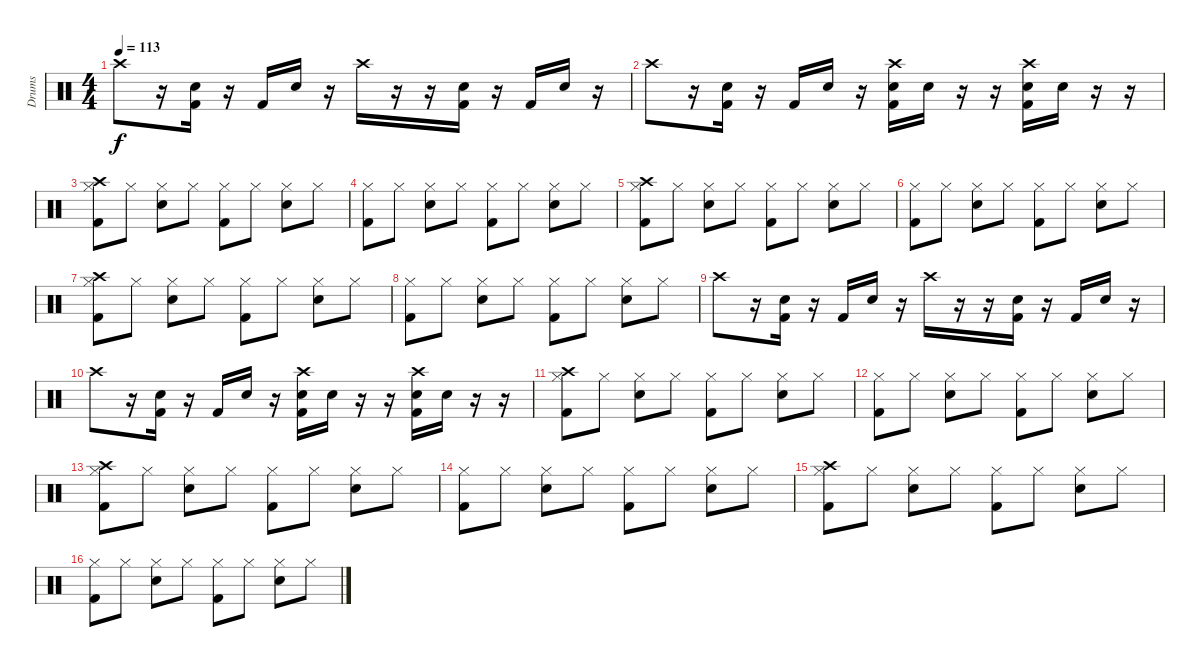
\track ("Drums" "Drums") {instrument percussion}
\staff {score}
\articulation defaults
\ts (4 4)
\tempo 113
\clef neutral
\ks c "Crash high (hit)".8{dy f}
r.16 ("Snare (hit) 2" "Kick (hit) 2").16 r.16 "Kick (hit) 2".16 "Snare (hit) 2".16 r.16 "Crash high (hit)".16 r.16 r.16 ("Snare (hit) 2" "Kick (hit) 2").16 r.16 "Kick (hit) 2".16 "Snare (hit) 2".16 r.16 |
"Crash high (hit)".8 r.16 ("Snare (hit) 2" "Kick (hit) 2").16 r.16 "Kick (hit) 2".16 "Snare (hit) 2".16 r.16 ("Crash high (hit)" "Snare (hit) 2" "Kick (hit) 2").16 "Snare (hit) 2".16 r.16 r.16 ("Crash high (hit)" "Snare (hit) 2" "Kick (hit) 2").16 "Snare (hit) 2".16 r.16 r.16 |
("Crash high (hit)" "Hi-Hat (closed)" "Kick (hit) 2").8 "Hi-Hat (closed)".8 ("Hi-Hat (closed)" "Snare (hit) 2").8 "Hi-Hat (closed)".8 ("Hi-Hat (closed)" "Kick (hit) 2").8 "Hi-Hat (closed)".8 ("Hi-Hat (closed)" "Snare (hit) 2").8 "Hi-Hat (closed)".8 |
("Hi-Hat (closed)" "Kick (hit) 2").8 "Hi-Hat (closed)".8 ("Hi-Hat (closed)" "Snare (hit) 2").8 "Hi-Hat (closed)".8 ("Hi-Hat (closed)" "Kick (hit) 2").8 "Hi-Hat (closed)".8 ("Hi-Hat (closed)" "Snare (hit) 2").8 "Hi-Hat (closed)".8 |
("Crash high (hit)" "Hi-Hat (closed)" "Kick (hit) 2").8 "Hi-Hat (closed)".8 ("Hi-Hat (closed)" "Snare (hit) 2").8 "Hi-Hat (closed)".8 ("Hi-Hat (closed)" "Kick (hit) 2").8 "Hi-Hat (closed)".8 ("Hi-Hat (closed)" "Snare (hit) 2").8 "Hi-Hat (closed)".8 |
("Hi-Hat (closed)" "Kick (hit) 2").8 "Hi-Hat (closed)".8 ("Hi-Hat (closed)" "Snare (hit) 2").8 "Hi-Hat (closed)".8 ("Hi-Hat (closed)" "Kick (hit) 2").8 "Hi-Hat (closed)".8 ("Hi-Hat (closed)" "Snare (hit) 2").8 "Hi-Hat (closed)".8 |
("Crash high (hit)" "Hi-Hat (closed)" "Kick (hit) 2").8 "Hi-Hat (closed)".8 ("Hi-Hat (closed)" "Snare (hit) 2").8 "Hi-Hat (closed)".8 ("Hi-Hat (closed)" "Kick (hit) 2").8 "Hi-Hat (closed)".8 ("Hi-Hat (closed)" "Snare (hit) 2").8 "Hi-Hat (closed)".8 |
("Hi-Hat (closed)" "Kick (hit) 2").8 "Hi-Hat (closed)".8 ("Hi-Hat (closed)" "Snare (hit) 2").8 "Hi-Hat (closed)".8 ("Hi-Hat (closed)" "Kick (hit) 2").8 "Hi-Hat (closed)".8 ("Hi-Hat (closed)" "Snare (hit) 2").8 "Hi-Hat (closed)".8 |
"Crash high (hit)".8 r.16 ("Snare (hit) 2" "Kick (hit) 2").16 r.16 "Kick (hit) 2".16 "Snare (hit) 2".16 r.16 "Crash high (hit)".16 r.16 r.16 ("Snare (hit) 2" "Kick (hit) 2").16 r.16 "Kick (hit) 2".16 "Snare (hit) 2".16 r.16 |
"Crash high (hit)".8 r.16 ("Snare (hit) 2" "Kick (hit) 2").16 r.16 "Kick (hit) 2".16 "Snare (hit) 2".16 r.16 ("Crash high (hit)" "Snare (hit) 2" "Kick (hit) 2").16 "Snare (hit) 2".16 r.16 r.16 ("Crash high (hit)" "Snare (hit) 2" "Kick (hit) 2").16 "Snare (hit) 2".16 r.16 r.16 |
("Crash high (hit)" "Hi-Hat (closed)" "Kick (hit) 2").8 "Hi-Hat (closed)".8 ("Hi-Hat (closed)" "Snare (hit) 2").8 "Hi-Hat (closed)".8 ("Hi-Hat (closed)" "Kick (hit) 2").8 "Hi-Hat (closed)".8 ("Hi-Hat (closed)" "Snare (hit) 2").8 "Hi-Hat (closed)".8 |
("Hi-Hat (closed)" "Kick (hit) 2").8 "Hi-Hat (closed)".8 ("Hi-Hat (closed)" "Snare (hit) 2").8 "Hi-Hat (closed)".8 ("Hi-Hat (closed)" "Kick (hit) 2").8 "Hi-Hat (closed)".8 ("Hi-Hat (closed)" "Snare (hit) 2").8 "Hi-Hat (closed)".8 |
("Crash high (hit)" "Hi-Hat (closed)" "Kick (hit) 2").8 "Hi-Hat (closed)".8 ("Hi-Hat (closed)" "Snare (hit) 2").8 "Hi-Hat (closed)".8 ("Hi-Hat (closed)" "Kick (hit) 2").8 "Hi-Hat (closed)".8 ("Hi-Hat (closed)" "Snare (hit) 2").8 "Hi-Hat (closed)".8 |
("Hi-Hat (closed)" "Kick (hit) 2").8 "Hi-Hat (closed)".8 ("Hi-Hat (closed)" "Snare (hit) 2").8 "Hi-Hat (closed)".8 ("Hi-Hat (closed)" "Kick (hit) 2").8 "Hi-Hat (closed)".8 ("Hi-Hat (closed)" "Snare (hit) 2").8 "Hi-Hat (closed)".8 |
("Crash high (hit)" "Hi-Hat (closed)" "Kick (hit) 2").8 "Hi-Hat (closed)".8 ("Hi-Hat (closed)" "Snare (hit) 2").8 "Hi-Hat (closed)".8 ("Hi-Hat (closed)" "Kick (hit) 2").8 "Hi-Hat (closed)".8 ("Hi-Hat (closed)" "Snare (hit) 2").8 "Hi-Hat (closed)".8 |
("Hi-Hat (closed)" "Kick (hit) 2").8 "Hi-Hat (closed)".8 ("Hi-Hat (closed)" "Snare (hit) 2").8 "Hi-Hat (closed)".8 ("Hi-Hat (closed)" "Kick (hit) 2").8 "Hi-Hat (closed)".8 ("Hi-Hat (closed)" "Snare (hit) 2").8 "Hi-Hat (closed)".8
